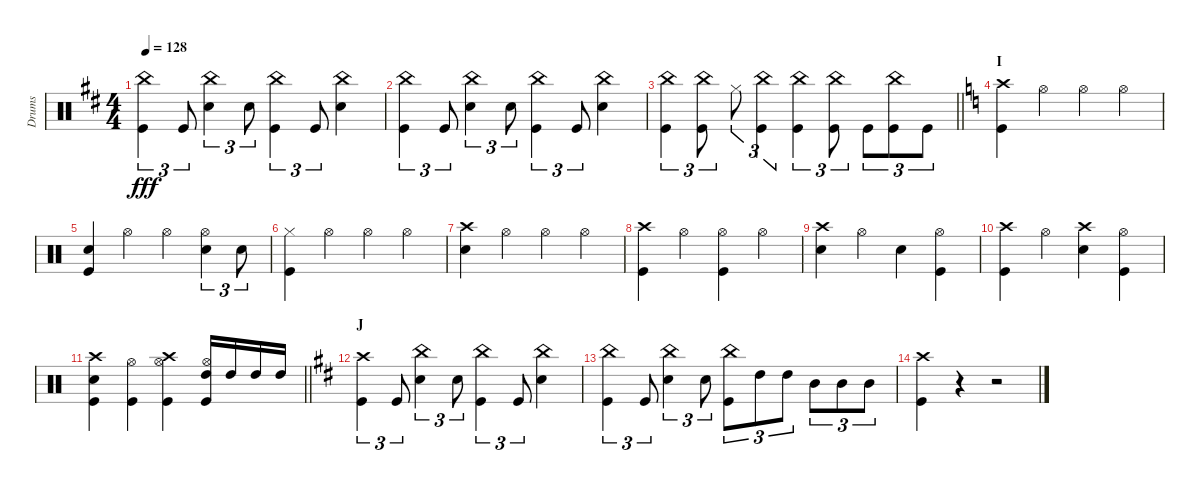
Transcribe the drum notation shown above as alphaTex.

\track ("Drums" "Drums") {instrument percussion}
\staff {score}
\articulation defaults
\ts (4 4)
\tempo 128
\clef neutral
\ks d
("China (hit)" "Kick (hit)").4{tu (3 2) dy fff} "Kick (hit)".8{tu (3 2)} ("China (hit)" "Snare (hit) 2").4{tu (3 2)} "Snare (hit) 2".8{tu (3 2)} ("China (hit)" "Kick (hit)").4{tu (3 2)} "Kick (hit)".8{tu (3 2)} ("China (hit)" "Snare (hit) 2").4 |
("China (hit)" "Kick (hit)").4{tu (3 2)} "Kick (hit)".8{tu (3 2)} ("China (hit)" "Snare (hit) 2").4{tu (3 2)} "Snare (hit) 2".8{tu (3 2)} ("China (hit)" "Kick (hit)").4{tu (3 2)} "Kick (hit)".8{tu (3 2)} ("China (hit)" "Snare (hit) 2").4 |
\barLineRight lightlight
("China (hit)" "Kick (hit)").4{tu (3 2)} ("China (hit)" "Kick (hit)").8{tu (3 2)} "Hi-Hat (closed)".8{tu (3 2)} ("China (hit)" "Kick (hit)").4{tu (3 2)} ("China (hit)" "Kick (hit)").4{tu (3 2)} ("China (hit)" "Kick (hit)").8{tu (3 2)} "Kick (hit)".8{tu (3 2)} ("China (hit)" "Kick (hit)").8{tu (3 2)} "Kick (hit)".8{tu (3 2)} |
\section ("" "I")
\ks c
("Crash high (hit)" "Kick (hit)").4 "Hi-Hat (open)".4 "Hi-Hat (open)".4 "Hi-Hat (open)".4 |
("Snare (hit) 2" "Kick (hit)").4 "Hi-Hat (open)".4 "Hi-Hat (open)".4 ("Hi-Hat (open)" "Snare (hit) 2").4{tu (3 2)} "Snare (hit) 2".8{tu (3 2)} |
("Hi-Hat (closed)" "Kick (hit)").4 "Hi-Hat (open)".4 "Hi-Hat (open)".4 "Hi-Hat (open)".4 |
("Crash high (hit)" "Snare (hit) 2").4 "Hi-Hat (open)".4 "Hi-Hat (open)".4 "Hi-Hat (open)".4 |
("Crash high (hit)" "Kick (hit)").4 "Hi-Hat (open)".4 ("Hi-Hat (open)" "Kick (hit)").4 "Hi-Hat (open)".4 |
("Crash high (hit)" "Snare (hit) 2").4 "Hi-Hat (open)".4 "Snare (hit) 2".4 ("Hi-Hat (open)" "Kick (hit)").4 |
("Crash high (hit)" "Kick (hit)").4 "Hi-Hat (open)".4 ("Crash high (hit)" "Snare (hit) 2").4 ("Hi-Hat (open)" "Kick (hit)").4 |
\barLineRight lightlight
("Crash high (hit)" "Snare (hit) 2" "Kick (hit)").4 ("Hi-Hat (open)" "Kick (hit)").4 ("Hi-Hat (open)" "Crash high (hit)" "Kick (hit)").4 ("Hi-Hat (open)" "High Tom (hit)" "Kick (hit)").16 "High Tom (hit)".16 "High Tom (hit)".16 "High Tom (hit)".16 |
\section ("" "J")
\ks d
("Crash high (hit)" "Kick (hit)").4{tu (3 2)} "Kick (hit)".8{tu (3 2)} ("China (hit)" "Snare (hit) 2").4{tu (3 2)} "Snare (hit) 2".8{tu (3 2)} ("China (hit)" "Kick (hit)").4{tu (3 2)} "Kick (hit)".8{tu (3 2)} ("China (hit)" "Snare (hit) 2").4 |
("China (hit)" "Kick (hit)").4{tu (3 2)} "Kick (hit)".8{tu (3 2)} ("China (hit)" "Snare (hit) 2").4{tu (3 2)} "Snare (hit) 2".8{tu (3 2)} ("China (hit)" "Kick (hit)").8{tu (3 2)} "High Tom (hit)".8{tu (3 2)} "High Tom (hit)".8{tu (3 2)} "Mid Tom (hit)".8{tu (3 2)} "Mid Tom (hit)".8{tu (3 2)} "Mid Tom (hit)".8{tu (3 2)} |
("Crash high (hit)" "Kick (hit)").4 r.4 r.2
